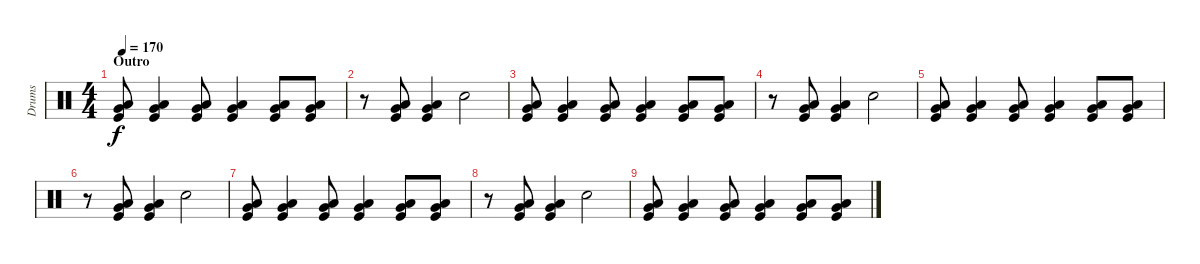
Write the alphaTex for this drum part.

\track ("Drums" "Drums") {instrument percussion}
\staff {score}
\articulation defaults
\ts (4 4)
\section ("" "Outro")
\tempo 170
\clef neutral
\ks c
("Kick (hit)" "Very Low Tom (hit)" "Low Floor Tom (hit)").8{dy f} ("Kick (hit)" "Very Low Tom (hit)" "Low Floor Tom (hit)").4 ("Kick (hit)" "Very Low Tom (hit)" "Low Floor Tom (hit)").8 ("Kick (hit)" "Very Low Tom (hit)" "Low Floor Tom (hit)").4 ("Kick (hit)" "Very Low Tom (hit)" "Low Floor Tom (hit)").8 ("Kick (hit)" "Very Low Tom (hit)" "Low Floor Tom (hit)").8 |
r.8 ("Kick (hit)" "Very Low Tom (hit)" "Low Floor Tom (hit)").8 ("Kick (hit)" "Very Low Tom (hit)" "Low Floor Tom (hit)").4 "Snare (hit) 2".2 |
("Kick (hit)" "Very Low Tom (hit)" "Low Floor Tom (hit)").8 ("Kick (hit)" "Very Low Tom (hit)" "Low Floor Tom (hit)").4 ("Kick (hit)" "Very Low Tom (hit)" "Low Floor Tom (hit)").8 ("Kick (hit)" "Very Low Tom (hit)" "Low Floor Tom (hit)").4 ("Kick (hit)" "Very Low Tom (hit)" "Low Floor Tom (hit)").8 ("Kick (hit)" "Very Low Tom (hit)" "Low Floor Tom (hit)").8 |
r.8 ("Kick (hit)" "Very Low Tom (hit)" "Low Floor Tom (hit)").8 ("Kick (hit)" "Very Low Tom (hit)" "Low Floor Tom (hit)").4 "Snare (hit) 2".2 |
("Kick (hit)" "Very Low Tom (hit)" "Low Floor Tom (hit)").8 ("Kick (hit)" "Very Low Tom (hit)" "Low Floor Tom (hit)").4 ("Kick (hit)" "Very Low Tom (hit)" "Low Floor Tom (hit)").8 ("Kick (hit)" "Very Low Tom (hit)" "Low Floor Tom (hit)").4 ("Kick (hit)" "Very Low Tom (hit)" "Low Floor Tom (hit)").8 ("Kick (hit)" "Very Low Tom (hit)" "Low Floor Tom (hit)").8 |
r.8 ("Kick (hit)" "Very Low Tom (hit)" "Low Floor Tom (hit)").8 ("Kick (hit)" "Very Low Tom (hit)" "Low Floor Tom (hit)").4 "Snare (hit) 2".2 |
("Kick (hit)" "Very Low Tom (hit)" "Low Floor Tom (hit)").8 ("Kick (hit)" "Very Low Tom (hit)" "Low Floor Tom (hit)").4 ("Kick (hit)" "Very Low Tom (hit)" "Low Floor Tom (hit)").8 ("Kick (hit)" "Very Low Tom (hit)" "Low Floor Tom (hit)").4 ("Kick (hit)" "Very Low Tom (hit)" "Low Floor Tom (hit)").8 ("Kick (hit)" "Very Low Tom (hit)" "Low Floor Tom (hit)").8 |
r.8 ("Kick (hit)" "Very Low Tom (hit)" "Low Floor Tom (hit)").8 ("Kick (hit)" "Very Low Tom (hit)" "Low Floor Tom (hit)").4 "Snare (hit) 2".2 |
("Kick (hit)" "Very Low Tom (hit)" "Low Floor Tom (hit)").8 ("Kick (hit)" "Very Low Tom (hit)" "Low Floor Tom (hit)").4 ("Kick (hit)" "Very Low Tom (hit)" "Low Floor Tom (hit)").8 ("Kick (hit)" "Very Low Tom (hit)" "Low Floor Tom (hit)").4 ("Kick (hit)" "Very Low Tom (hit)" "Low Floor Tom (hit)").8 ("Kick (hit)" "Very Low Tom (hit)" "Low Floor Tom (hit)").8
